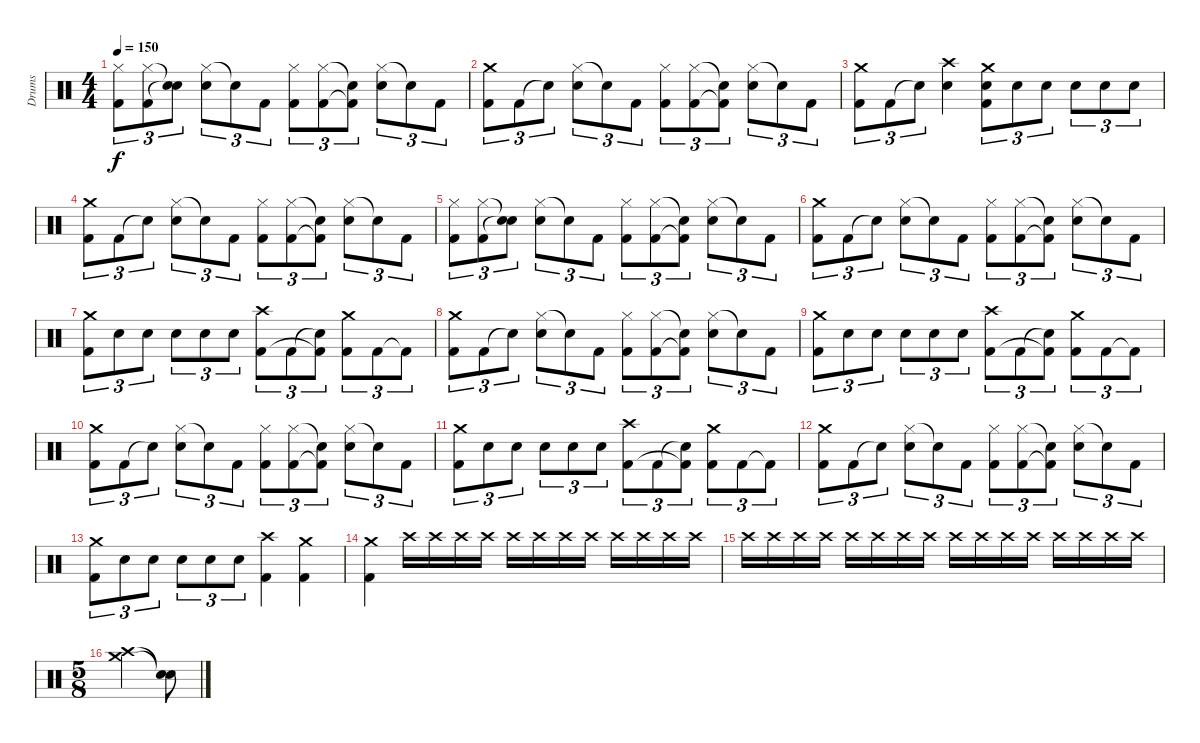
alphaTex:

\track ("Drums" "Drums") {instrument percussion}
\staff {score}
\articulation defaults
\ts (4 4)
\tempo 150
\clef neutral
\ks c
("Hi-Hat (closed)" "Kick (hit) 2").8{tu (3 2) dy f} ("Hi-Hat (closed)" "Kick (hit) 2").8{tu (3 2)} ("Snare (hit)"{t} "Snare (hit)"{t}).8{tu (3 2)} ("Hi-Hat (closed)" "Electric Snare (hit)").8{tu (3 2)} "Snare (hit)"{t}.8{tu (3 2)} "Kick (hit) 2".8{tu (3 2)} ("Hi-Hat (closed)" "Kick (hit) 2").8{tu (3 2)} ("Hi-Hat (closed)" "Kick (hit) 2").8{tu (3 2)} ("Snare (hit)"{t} "Kick (hit) 2"{t}).8{tu (3 2)} ("Hi-Hat (closed)" "Electric Snare (hit)").8{tu (3 2)} "Snare (hit)"{t}.8{tu (3 2)} "Kick (hit) 2".8{tu (3 2)} |
("Crash medium (hit)" "Kick (hit) 2").8{tu (3 2)} "Kick (hit) 2".8{tu (3 2)} "Snare (hit)"{t}.8{tu (3 2)} ("Hi-Hat (closed)" "Electric Snare (hit)").8{tu (3 2)} "Snare (hit)"{t}.8{tu (3 2)} "Kick (hit) 2".8{tu (3 2)} ("Hi-Hat (closed)" "Kick (hit) 2").8{tu (3 2)} ("Hi-Hat (closed)" "Kick (hit) 2").8{tu (3 2)} ("Snare (hit)"{t} "Kick (hit) 2"{t}).8{tu (3 2)} ("Hi-Hat (closed)" "Electric Snare (hit)").8{tu (3 2)} "Snare (hit)"{t}.8{tu (3 2)} "Kick (hit) 2".8{tu (3 2)} |
("Crash medium (hit)" "Kick (hit) 2").8{tu (3 2)} "Kick (hit) 2".8{tu (3 2)} "Snare (hit)"{t}.8{tu (3 2)} ("Crash high (hit)" "Electric Snare (hit)").4 ("Crash medium (hit)" "Electric Snare (hit)" "Kick (hit) 2").8{tu (3 2)} "Electric Snare (hit)".8{tu (3 2)} "Electric Snare (hit)".8{tu (3 2)} "Electric Snare (hit)".8{tu (3 2)} "Electric Snare (hit)".8{tu (3 2)} "Electric Snare (hit)".8{tu (3 2)} |
("Crash medium (hit)" "Kick (hit) 2").8{tu (3 2)} "Kick (hit) 2".8{tu (3 2)} "Snare (hit)"{t}.8{tu (3 2)} ("Hi-Hat (closed)" "Electric Snare (hit)").8{tu (3 2)} "Snare (hit)"{t}.8{tu (3 2)} "Kick (hit) 2".8{tu (3 2)} ("Hi-Hat (closed)" "Kick (hit) 2").8{tu (3 2)} ("Hi-Hat (closed)" "Kick (hit) 2").8{tu (3 2)} ("Snare (hit)"{t} "Kick (hit) 2"{t}).8{tu (3 2)} ("Hi-Hat (closed)" "Electric Snare (hit)").8{tu (3 2)} "Snare (hit)"{t}.8{tu (3 2)} "Kick (hit) 2".8{tu (3 2)} |
("Hi-Hat (closed)" "Kick (hit) 2").8{tu (3 2)} ("Hi-Hat (closed)" "Kick (hit) 2").8{tu (3 2)} ("Snare (hit)"{t} "Snare (hit)"{t}).8{tu (3 2)} ("Hi-Hat (closed)" "Electric Snare (hit)").8{tu (3 2)} "Snare (hit)"{t}.8{tu (3 2)} "Kick (hit) 2".8{tu (3 2)} ("Hi-Hat (closed)" "Kick (hit) 2").8{tu (3 2)} ("Hi-Hat (closed)" "Kick (hit) 2").8{tu (3 2)} ("Snare (hit)"{t} "Kick (hit) 2"{t}).8{tu (3 2)} ("Hi-Hat (closed)" "Electric Snare (hit)").8{tu (3 2)} "Snare (hit)"{t}.8{tu (3 2)} "Kick (hit) 2".8{tu (3 2)} |
("Crash medium (hit)" "Kick (hit) 2").8{tu (3 2)} "Kick (hit) 2".8{tu (3 2)} "Snare (hit)"{t}.8{tu (3 2)} ("Hi-Hat (closed)" "Electric Snare (hit)").8{tu (3 2)} "Snare (hit)"{t}.8{tu (3 2)} "Kick (hit) 2".8{tu (3 2)} ("Hi-Hat (closed)" "Kick (hit) 2").8{tu (3 2)} ("Hi-Hat (closed)" "Kick (hit) 2").8{tu (3 2)} ("Snare (hit)"{t} "Kick (hit) 2"{t}).8{tu (3 2)} ("Hi-Hat (closed)" "Electric Snare (hit)").8{tu (3 2)} "Snare (hit)"{t}.8{tu (3 2)} "Kick (hit) 2".8{tu (3 2)} |
("Crash medium (hit)" "Kick (hit) 2").8{tu (3 2)} "Electric Snare (hit)".8{tu (3 2)} "Electric Snare (hit)".8{tu (3 2)} "Electric Snare (hit)".8{tu (3 2)} "Electric Snare (hit)".8{tu (3 2)} "Electric Snare (hit)".8{tu (3 2)} ("Crash high (hit)" "Kick (hit) 2").8{tu (3 2)} "Kick (hit) 2".8{tu (3 2)} ("Snare (hit)"{t} "Kick (hit) 2"{t}).8{tu (3 2)} ("Crash medium (hit)" "Kick (hit) 2").8{tu (3 2)} "Kick (hit) 2".8{tu (3 2)} "Kick (hit) 2"{t}.8{tu (3 2)} |
("Crash medium (hit)" "Kick (hit) 2").8{tu (3 2)} "Kick (hit) 2".8{tu (3 2)} "Snare (hit)"{t}.8{tu (3 2)} ("Hi-Hat (closed)" "Electric Snare (hit)").8{tu (3 2)} "Snare (hit)"{t}.8{tu (3 2)} "Kick (hit) 2".8{tu (3 2)} ("Hi-Hat (closed)" "Kick (hit) 2").8{tu (3 2)} ("Hi-Hat (closed)" "Kick (hit) 2").8{tu (3 2)} ("Snare (hit)"{t} "Kick (hit) 2"{t}).8{tu (3 2)} ("Hi-Hat (closed)" "Electric Snare (hit)").8{tu (3 2)} "Snare (hit)"{t}.8{tu (3 2)} "Kick (hit) 2".8{tu (3 2)} |
("Crash medium (hit)" "Kick (hit) 2").8{tu (3 2)} "Electric Snare (hit)".8{tu (3 2)} "Electric Snare (hit)".8{tu (3 2)} "Electric Snare (hit)".8{tu (3 2)} "Electric Snare (hit)".8{tu (3 2)} "Electric Snare (hit)".8{tu (3 2)} ("Crash high (hit)" "Kick (hit) 2").8{tu (3 2)} "Kick (hit) 2".8{tu (3 2)} ("Snare (hit)"{t} "Kick (hit) 2"{t}).8{tu (3 2)} ("Crash medium (hit)" "Kick (hit) 2").8{tu (3 2)} "Kick (hit) 2".8{tu (3 2)} "Kick (hit) 2"{t}.8{tu (3 2)} |
("Crash medium (hit)" "Kick (hit) 2").8{tu (3 2)} "Kick (hit) 2".8{tu (3 2)} "Snare (hit)"{t}.8{tu (3 2)} ("Hi-Hat (closed)" "Electric Snare (hit)").8{tu (3 2)} "Snare (hit)"{t}.8{tu (3 2)} "Kick (hit) 2".8{tu (3 2)} ("Hi-Hat (closed)" "Kick (hit) 2").8{tu (3 2)} ("Hi-Hat (closed)" "Kick (hit) 2").8{tu (3 2)} ("Snare (hit)"{t} "Kick (hit) 2"{t}).8{tu (3 2)} ("Hi-Hat (closed)" "Electric Snare (hit)").8{tu (3 2)} "Snare (hit)"{t}.8{tu (3 2)} "Kick (hit) 2".8{tu (3 2)} |
("Crash medium (hit)" "Kick (hit) 2").8{tu (3 2)} "Electric Snare (hit)".8{tu (3 2)} "Electric Snare (hit)".8{tu (3 2)} "Electric Snare (hit)".8{tu (3 2)} "Electric Snare (hit)".8{tu (3 2)} "Electric Snare (hit)".8{tu (3 2)} ("Crash high (hit)" "Kick (hit) 2").8{tu (3 2)} "Kick (hit) 2".8{tu (3 2)} ("Snare (hit)"{t} "Kick (hit) 2"{t}).8{tu (3 2)} ("Crash medium (hit)" "Kick (hit) 2").8{tu (3 2)} "Kick (hit) 2".8{tu (3 2)} "Kick (hit) 2"{t}.8{tu (3 2)} |
("Crash medium (hit)" "Kick (hit) 2").8{tu (3 2)} "Kick (hit) 2".8{tu (3 2)} "Snare (hit)"{t}.8{tu (3 2)} ("Hi-Hat (closed)" "Electric Snare (hit)").8{tu (3 2)} "Snare (hit)"{t}.8{tu (3 2)} "Kick (hit) 2".8{tu (3 2)} ("Hi-Hat (closed)" "Kick (hit) 2").8{tu (3 2)} ("Hi-Hat (closed)" "Kick (hit) 2").8{tu (3 2)} ("Snare (hit)"{t} "Kick (hit) 2"{t}).8{tu (3 2)} ("Hi-Hat (closed)" "Electric Snare (hit)").8{tu (3 2)} "Snare (hit)"{t}.8{tu (3 2)} "Kick (hit) 2".8{tu (3 2)} |
("Crash medium (hit)" "Kick (hit) 2").8{tu (3 2)} "Electric Snare (hit)".8{tu (3 2)} "Electric Snare (hit)".8{tu (3 2)} "Electric Snare (hit)".8{tu (3 2)} "Electric Snare (hit)".8{tu (3 2)} "Electric Snare (hit)".8{tu (3 2)} ("Crash high (hit)" "Kick (hit) 2").4 ("Crash medium (hit)" "Kick (hit) 2").4 |
("Crash medium (hit)" "Kick (hit) 2").4 "Crash high (hit)".16 "Crash high (hit)".16 "Crash high (hit)".16 "Crash high (hit)".16 "Crash high (hit)".16 "Crash high (hit)".16 "Crash high (hit)".16 "Crash high (hit)".16 "Crash high (hit)".16 "Crash high (hit)".16 "Crash high (hit)".16 "Crash high (hit)".16 |
"Crash high (hit)".16 "Crash high (hit)".16 "Crash high (hit)".16 "Crash high (hit)".16 "Crash high (hit)".16 "Crash high (hit)".16 "Crash high (hit)".16 "Crash high (hit)".16 "Crash high (hit)".16 "Crash high (hit)".16 "Crash high (hit)".16 "Crash high (hit)".16 "Crash high (hit)".16 "Crash high (hit)".16 "Crash high (hit)".16 "Crash high (hit)".16 |
\ts (5 8)
("Crash high (hit)" "Crash medium (hit)").2 ("Snare (hit)"{t} "Snare (hit)"{t}).8
